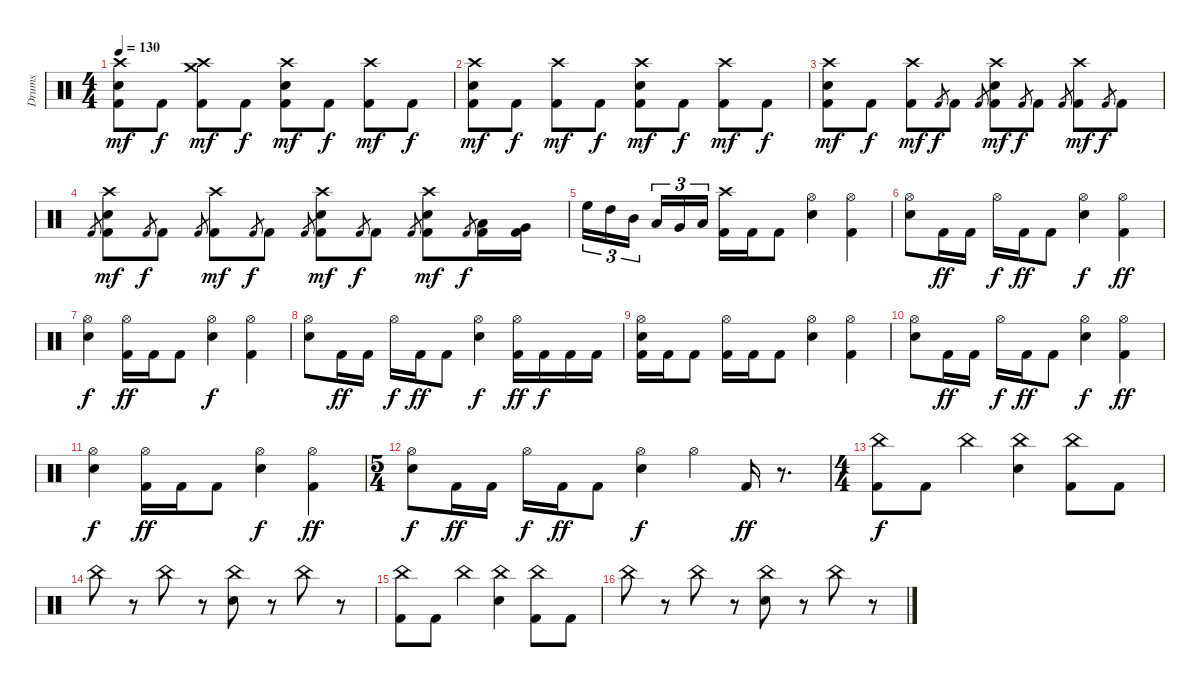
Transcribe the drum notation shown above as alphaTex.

\track ("Drums" "Drums") {instrument percussion}
\staff {score}
\articulation defaults
\ts (4 4)
\tempo 130
\clef neutral
\ks c
("Crash high (hit)" "Electric Snare (hit)" "Kick (hit) 2").8{dy mf} "Kick (hit) 2".8{dy f} ("Crash high (hit)" "Crash medium (hit)" "Kick (hit) 2").8{dy mf} "Kick (hit) 2".8{dy f} ("Crash high (hit)" "Electric Snare (hit)" "Kick (hit) 2").8{dy mf} "Kick (hit) 2".8{dy f} ("Crash high (hit)" "Kick (hit) 2").8{dy mf} "Kick (hit) 2".8{dy f} |
("Crash high (hit)" "Electric Snare (hit)" "Kick (hit) 2").8{dy mf} "Kick (hit) 2".8{dy f} ("Crash high (hit)" "Kick (hit) 2").8{dy mf} "Kick (hit) 2".8{dy f} ("Crash high (hit)" "Electric Snare (hit)" "Kick (hit) 2").8{dy mf} "Kick (hit) 2".8{dy f} ("Crash high (hit)" "Kick (hit) 2").8{dy mf} "Kick (hit) 2".8{dy f} |
("Crash high (hit)" "Electric Snare (hit)" "Kick (hit) 2").8{dy mf} "Kick (hit) 2".8{dy f} ("Crash high (hit)" "Kick (hit) 2").8{dy mf} "Kick (hit) 2".8{gr dy f} "Kick (hit) 2".8 "Kick (hit) 2".8{gr} ("Crash high (hit)" "Electric Snare (hit)" "Kick (hit) 2").8{dy mf} "Kick (hit) 2".8{gr dy f} "Kick (hit) 2".8 "Kick (hit) 2".8{gr} ("Crash high (hit)" "Kick (hit) 2").8{dy mf} "Kick (hit) 2".8{gr dy f} "Kick (hit) 2".8 |
"Kick (hit) 2".8{gr} ("Crash high (hit)" "Electric Snare (hit)" "Kick (hit) 2").8{dy mf} "Kick (hit) 2".8{gr dy f} "Kick (hit) 2".8 "Kick (hit) 2".8{gr} ("Crash high (hit)" "Kick (hit) 2").8{dy mf} "Kick (hit) 2".8{gr dy f} "Kick (hit) 2".8 "Kick (hit) 2".8{gr} ("Crash high (hit)" "Electric Snare (hit)" "Kick (hit) 2").8{dy mf} "Kick (hit) 2".8{gr dy f} "Kick (hit) 2".8 "Kick (hit) 2".8{gr} ("Crash high (hit)" "Electric Snare (hit)" "Kick (hit) 2").8{dy mf} "Kick (hit) 2".8{gr dy f} ("Low Tom (hit)" "Kick (hit) 2").16 ("Very Low Tom (hit)" "Kick (hit) 2").16 |
"High Floor Tom (hit)".16{tu (3 2)} "High Tom (hit)".16{tu (3 2)} "Mid Tom (hit)".16{tu (3 2)} "Low Tom (hit)".16{tu (3 2)} "Very Low Tom (hit)".16{tu (3 2)} "Low Floor Tom (hit)".16{tu (3 2)} ("Crash high (hit)" "Kick (hit) 2").16 "Kick (hit) 2".16 "Kick (hit) 2".8 ("Hi-Hat (open)" "Electric Snare (hit)").4 ("Hi-Hat (open)" "Kick (hit) 2").4 |
("Hi-Hat (open)" "Electric Snare (hit)").8 "Kick (hit) 2".16{dy ff} "Kick (hit) 2".16 "Hi-Hat (open)".16{dy f} "Kick (hit) 2".16{dy ff} "Kick (hit) 2".8 ("Hi-Hat (open)" "Electric Snare (hit)").4{dy f} ("Hi-Hat (open)" "Kick (hit) 2").4{dy ff} |
("Hi-Hat (open)" "Electric Snare (hit)").4{dy f} ("Hi-Hat (open)" "Kick (hit) 2").16{dy ff} "Kick (hit) 2".16 "Kick (hit) 2".8 ("Hi-Hat (open)" "Electric Snare (hit)").4{dy f} ("Hi-Hat (open)" "Kick (hit) 2").4 |
("Hi-Hat (open)" "Electric Snare (hit)").8 "Kick (hit) 2".16{dy ff} "Kick (hit) 2".16 "Hi-Hat (open)".16{dy f} "Kick (hit) 2".16{dy ff} "Kick (hit) 2".8 ("Hi-Hat (open)" "Electric Snare (hit)").4{dy f} ("Hi-Hat (open)" "Kick (hit) 2").16{dy ff} "Kick (hit) 2".16{dy f} "Kick (hit) 2".16 "Kick (hit) 2".16 |
("Hi-Hat (open)" "Electric Snare (hit)" "Kick (hit) 2").16 "Kick (hit) 2".16 "Kick (hit) 2".8 ("Hi-Hat (open)" "Kick (hit) 2").16 "Kick (hit) 2".16 "Kick (hit) 2".8 ("Hi-Hat (open)" "Electric Snare (hit)").4 ("Hi-Hat (open)" "Kick (hit) 2").4 |
("Hi-Hat (open)" "Electric Snare (hit)").8 "Kick (hit) 2".16{dy ff} "Kick (hit) 2".16 "Hi-Hat (open)".16{dy f} "Kick (hit) 2".16{dy ff} "Kick (hit) 2".8 ("Hi-Hat (open)" "Electric Snare (hit)").4{dy f} ("Hi-Hat (open)" "Kick (hit) 2").4{dy ff} |
("Hi-Hat (open)" "Electric Snare (hit)").4{dy f} ("Hi-Hat (open)" "Kick (hit) 2").16{dy ff} "Kick (hit) 2".16 "Kick (hit) 2".8 ("Hi-Hat (open)" "Electric Snare (hit)").4{dy f} ("Hi-Hat (open)" "Kick (hit) 2").4{dy ff} |
\ts (5 4)
("Hi-Hat (open)" "Electric Snare (hit)").8{dy f} "Kick (hit) 2".16{dy ff} "Kick (hit) 2".16 "Hi-Hat (open)".16{dy f} "Kick (hit) 2".16{dy ff} "Kick (hit) 2".8 ("Hi-Hat (open)" "Electric Snare (hit)").4{dy f} "Hi-Hat (open)".4 "Kick (hit) 2".16{dy ff} r.8{d} |
\ts (4 4)
("China (hit)" "Kick (hit) 2").8{dy f} "Kick (hit) 2".8 "China (hit)".4 ("China (hit)" "Electric Snare (hit)").4 ("China (hit)" "Kick (hit) 2").8 "Kick (hit) 2".8 |
"China (hit)".8 r.8 "China (hit)".8 r.8 ("China (hit)" "Electric Snare (hit)").8 r.8 "China (hit)".8 r.8 |
("China (hit)" "Kick (hit) 2").8 "Kick (hit) 2".8 "China (hit)".4 ("China (hit)" "Electric Snare (hit)").4 ("China (hit)" "Kick (hit) 2").8 "Kick (hit) 2".8 |
"China (hit)".8 r.8 "China (hit)".8 r.8 ("China (hit)" "Electric Snare (hit)").8 r.8 "China (hit)".8 r.8
